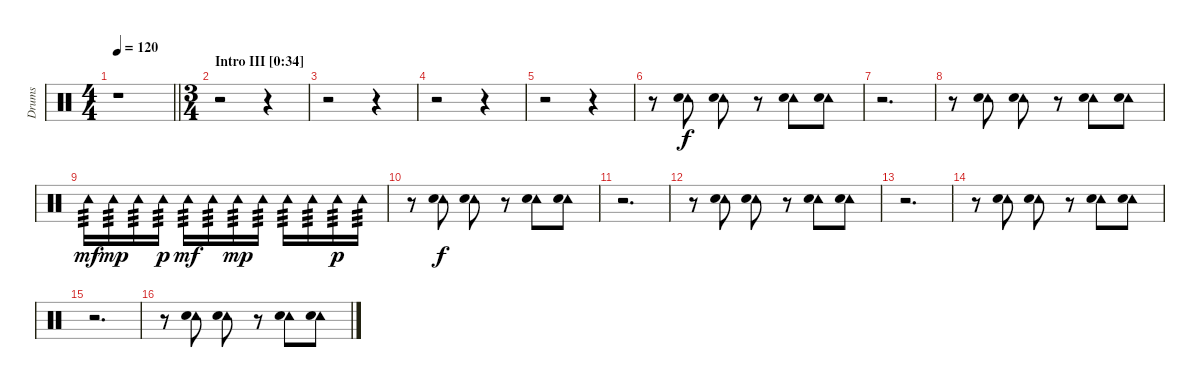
\track ("Drums" "Drums") {instrument percussion}
\staff {score}
\articulation defaults
\ts (4 4)
\tempo 120
\clef neutral
\barLineRight lightlight
\ks c
r.1{dy f} |
\ts (3 4)
\section ("" "Intro III [0:34]")
r.2 r.4 |
r.2 r.4 |
r.2 r.4 |
r.2 r.4 |
r.8{volume 7} ("Tambourine (hit)" "Snare (hit) 2").8 ("Tambourine (hit)" "Snare (hit) 2").8 r.8 ("Tambourine (hit)" "Snare (hit) 2").8 ("Tambourine (hit)" "Snare (hit) 2").8 |
r.2{d} |
r.8 ("Tambourine (hit)" "Snare (hit) 2").8 ("Tambourine (hit)" "Snare (hit) 2").8 r.8 ("Tambourine (hit)" "Snare (hit) 2").8 ("Tambourine (hit)" "Snare (hit) 2").8 |
"Tambourine (hit)".16{tp 3 dy mf} "Tambourine (hit)".16{tp 3 dy mp} "Tambourine (hit)".16{tp 3} "Tambourine (hit)".16{tp 3 dy p} "Tambourine (hit)".16{tp 3 dy mf} "Tambourine (hit)".16{tp 3} "Tambourine (hit)".16{tp 3 dy mp} "Tambourine (hit)".16{tp 3} "Tambourine (hit)".16{tp 3} "Tambourine (hit)".16{tp 3} "Tambourine (hit)".16{tp 3 dy p} "Tambourine (hit)".16{tp 3} |
r.8 ("Tambourine (hit)" "Snare (hit) 2").8{dy f} ("Tambourine (hit)" "Snare (hit) 2").8 r.8 ("Tambourine (hit)" "Snare (hit) 2").8 ("Tambourine (hit)" "Snare (hit) 2").8 |
r.2{d} |
r.8 ("Tambourine (hit)" "Snare (hit) 2").8 ("Tambourine (hit)" "Snare (hit) 2").8 r.8 ("Tambourine (hit)" "Snare (hit) 2").8 ("Tambourine (hit)" "Snare (hit) 2").8 |
r.2{d} |
r.8 ("Tambourine (hit)" "Snare (hit) 2").8 ("Tambourine (hit)" "Snare (hit) 2").8 r.8 ("Tambourine (hit)" "Snare (hit) 2").8 ("Tambourine (hit)" "Snare (hit) 2").8 |
r.2{d} |
r.8 ("Tambourine (hit)" "Snare (hit) 2").8 ("Tambourine (hit)" "Snare (hit) 2").8 r.8 ("Tambourine (hit)" "Snare (hit) 2").8 ("Tambourine (hit)" "Snare (hit) 2").8
